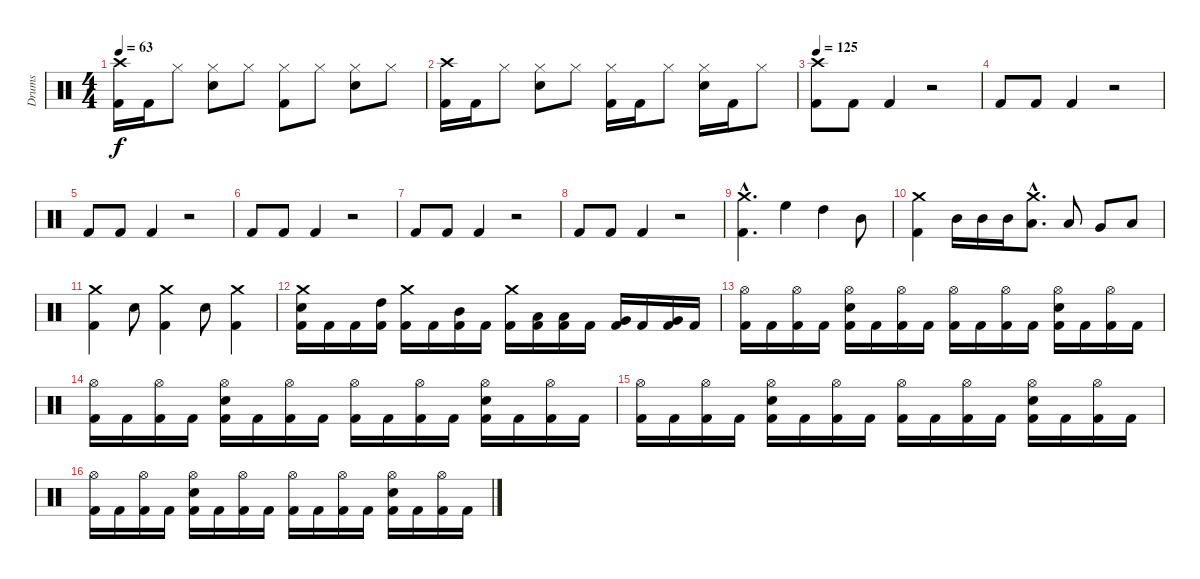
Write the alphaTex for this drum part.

\track ("Drums" "Drums") {instrument percussion}
\staff {score}
\articulation defaults
\ts (4 4)
\tempo 63
\clef neutral
\ks c
("Crash high (hit)" "Kick (hit) 2").16{dy f} "Kick (hit) 2".16 "Hi-Hat (closed)".8 ("Hi-Hat (closed)" "Electric Snare (hit)").8 "Hi-Hat (closed)".8 ("Hi-Hat (closed)" "Kick (hit) 2").8 "Hi-Hat (closed)".8 ("Hi-Hat (closed)" "Electric Snare (hit)").8 "Hi-Hat (closed)".8 |
("Crash high (hit)" "Kick (hit) 2").16 "Kick (hit) 2".16 "Hi-Hat (closed)".8 ("Hi-Hat (closed)" "Electric Snare (hit)").8 "Hi-Hat (closed)".8 ("Hi-Hat (closed)" "Kick (hit) 2").16 "Kick (hit) 2".16 "Hi-Hat (closed)".8 ("Hi-Hat (closed)" "Electric Snare (hit)").16 "Kick (hit) 2".16 "Hi-Hat (closed)".8 |
\tempo 125
("Crash high (hit)" "Kick (hit) 2").8 "Kick (hit) 2".8 "Kick (hit) 2".4 r.2 |
"Kick (hit) 2".8 "Kick (hit) 2".8 "Kick (hit) 2".4 r.2 |
"Kick (hit) 2".8 "Kick (hit) 2".8 "Kick (hit) 2".4 r.2 |
"Kick (hit) 2".8 "Kick (hit) 2".8 "Kick (hit) 2".4 r.2 |
"Kick (hit) 2".8 "Kick (hit) 2".8 "Kick (hit) 2".4 r.2 |
"Kick (hit) 2".8 "Kick (hit) 2".8 "Kick (hit) 2".4 r.2 |
("Crash medium (hit)"{hac} "Kick (hit) 2"{hac}).4{d} "High Floor Tom (hit)".4 "High Tom (hit)".4 "Mid Tom (hit)".8 |
("Crash medium (hit)" "Kick (hit) 2").4 "Mid Tom (hit)".16 "Mid Tom (hit)".16 "Mid Tom (hit)".16 ("Crash medium (hit)"{hac} "Low Tom (hit)"{hac}).8{d} "Low Tom (hit)".8 "Very Low Tom (hit)".8 "Low Floor Tom (hit)".8 |
("Crash medium (hit)" "Kick (hit) 2").4 "Electric Snare (hit)".8 ("Crash medium (hit)" "Kick (hit) 2").4 "Electric Snare (hit)".8 ("Crash medium (hit)" "Kick (hit) 2").4 |
("Crash medium (hit)" "Electric Snare (hit)" "Kick (hit) 2").16 "Kick (hit) 2".16 "Kick (hit) 2".16 ("High Tom (hit)" "Kick (hit) 2").16 ("Crash medium (hit)" "Kick (hit) 2").16 "Kick (hit) 2".16 ("Mid Tom (hit)" "Kick (hit) 2").16 "Kick (hit) 2".16 ("Crash medium (hit)" "Kick (hit) 2").16 ("Low Tom (hit)" "Kick (hit) 2").16 ("Low Tom (hit)" "Kick (hit) 2").16 "Kick (hit) 2".16 ("Very Low Tom (hit)" "Kick (hit) 2").16 "Kick (hit) 2".16 ("Very Low Tom (hit)" "Kick (hit) 2").16 "Kick (hit) 2".16 |
("Hi-Hat (open)" "Kick (hit) 2").16 "Kick (hit) 2".16 ("Hi-Hat (open)" "Kick (hit) 2").16 "Kick (hit) 2".16 ("Hi-Hat (open)" "Electric Snare (hit)" "Kick (hit) 2").16 "Kick (hit) 2".16 ("Hi-Hat (open)" "Kick (hit) 2").16 "Kick (hit) 2".16 ("Hi-Hat (open)" "Kick (hit) 2").16 "Kick (hit) 2".16 ("Hi-Hat (open)" "Kick (hit) 2").16 "Kick (hit) 2".16 ("Hi-Hat (open)" "Electric Snare (hit)" "Kick (hit) 2").16 "Kick (hit) 2".16 ("Hi-Hat (open)" "Kick (hit) 2").16 "Kick (hit) 2".16 |
("Hi-Hat (open)" "Kick (hit) 2").16 "Kick (hit) 2".16 ("Hi-Hat (open)" "Kick (hit) 2").16 "Kick (hit) 2".16 ("Hi-Hat (open)" "Electric Snare (hit)" "Kick (hit) 2").16 "Kick (hit) 2".16 ("Hi-Hat (open)" "Kick (hit) 2").16 "Kick (hit) 2".16 ("Hi-Hat (open)" "Kick (hit) 2").16 "Kick (hit) 2".16 ("Hi-Hat (open)" "Kick (hit) 2").16 "Kick (hit) 2".16 ("Hi-Hat (open)" "Electric Snare (hit)" "Kick (hit) 2").16 "Kick (hit) 2".16 ("Hi-Hat (open)" "Kick (hit) 2").16 "Kick (hit) 2".16 |
("Hi-Hat (open)" "Kick (hit) 2").16 "Kick (hit) 2".16 ("Hi-Hat (open)" "Kick (hit) 2").16 "Kick (hit) 2".16 ("Hi-Hat (open)" "Electric Snare (hit)" "Kick (hit) 2").16 "Kick (hit) 2".16 ("Hi-Hat (open)" "Kick (hit) 2").16 "Kick (hit) 2".16 ("Hi-Hat (open)" "Kick (hit) 2").16 "Kick (hit) 2".16 ("Hi-Hat (open)" "Kick (hit) 2").16 "Kick (hit) 2".16 ("Hi-Hat (open)" "Electric Snare (hit)" "Kick (hit) 2").16 "Kick (hit) 2".16 ("Hi-Hat (open)" "Kick (hit) 2").16 "Kick (hit) 2".16 |
("Hi-Hat (open)" "Kick (hit) 2").16 "Kick (hit) 2".16 ("Hi-Hat (open)" "Kick (hit) 2").16 "Kick (hit) 2".16 ("Hi-Hat (open)" "Electric Snare (hit)" "Kick (hit) 2").16 "Kick (hit) 2".16 ("Hi-Hat (open)" "Kick (hit) 2").16 "Kick (hit) 2".16 ("Hi-Hat (open)" "Kick (hit) 2").16 "Kick (hit) 2".16 ("Hi-Hat (open)" "Kick (hit) 2").16 "Kick (hit) 2".16 ("Hi-Hat (open)" "Electric Snare (hit)" "Kick (hit) 2").16 "Kick (hit) 2".16 ("Hi-Hat (open)" "Kick (hit) 2").16 "Kick (hit) 2".16
